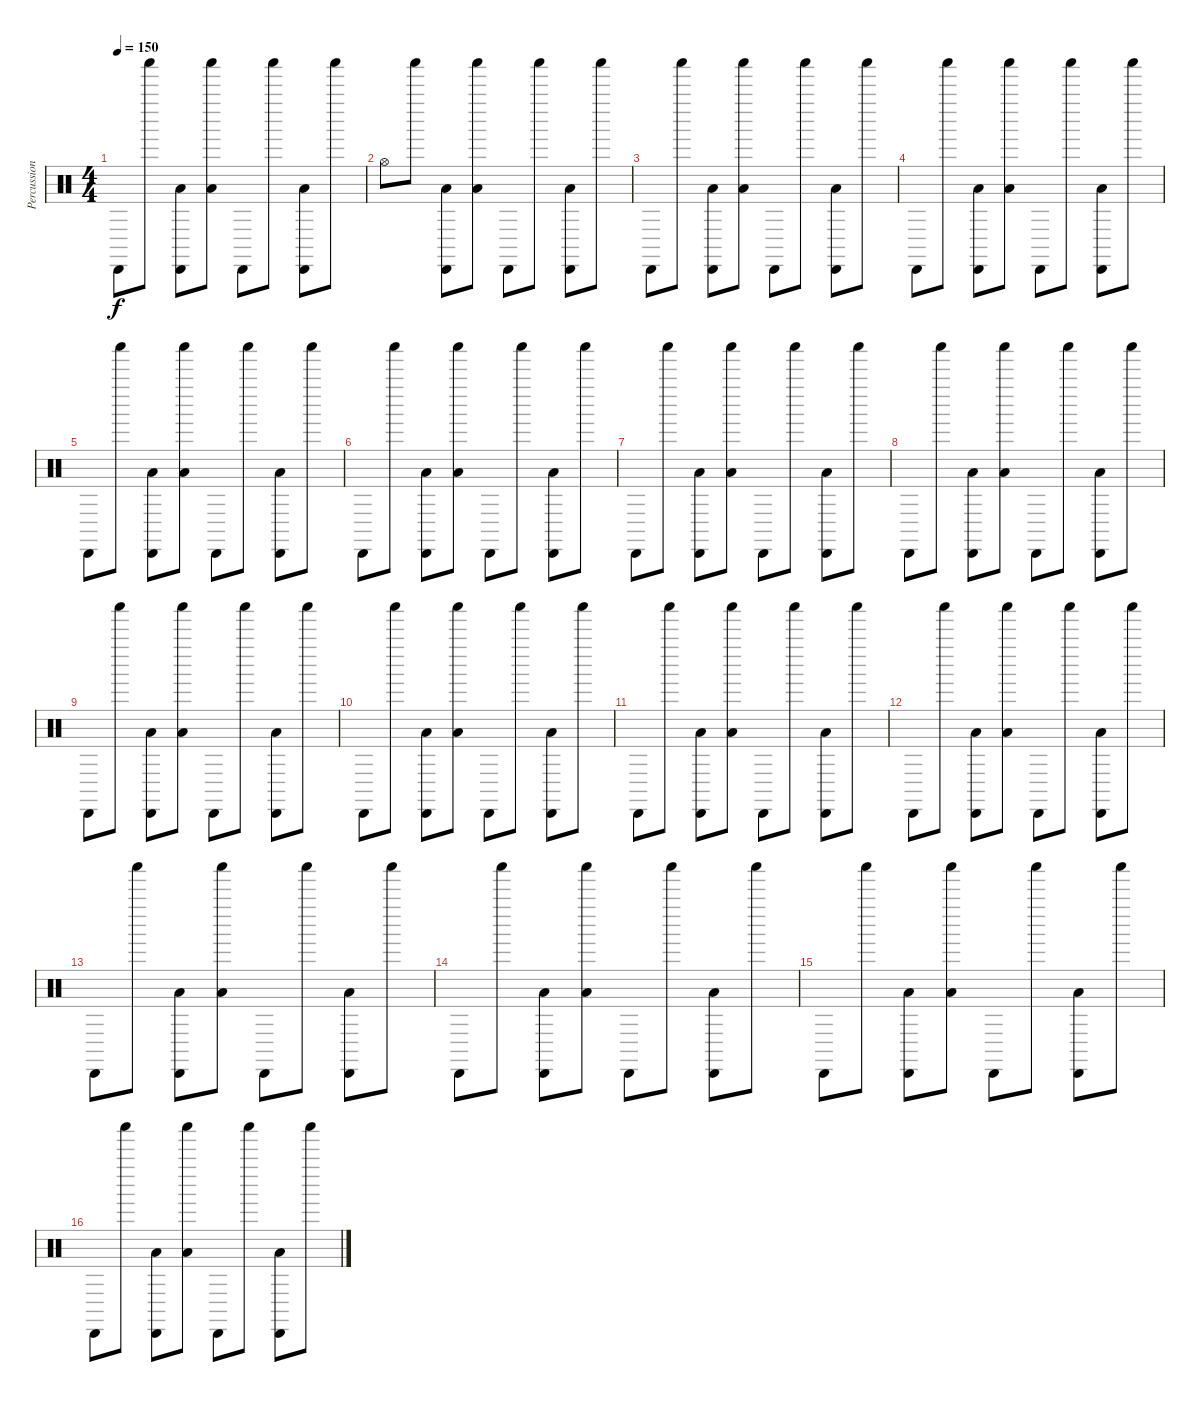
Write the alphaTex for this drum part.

\track ("Percussion" "Percussion") {instrument percussion}
\staff
\articulation defaults
\ts (4 4)
\tempo 150
\clef neutral
\ks c "Cabasa (hit)".8{dy f} "Shaker (hit)".8
("Cabasa (hit)" "Low Floor Tom (hit)").8 ("Shaker (hit)" "Low Floor Tom (hit)").8 "Cabasa (hit)".8 "Shaker (hit)".8 ("Cabasa (hit)" "Low Floor Tom (hit)").8 "Shaker (hit)".8 |
"Hi-Hat (open)".8 "Shaker (hit)".8 ("Cabasa (hit)" "Low Floor Tom (hit)").8 ("Shaker (hit)" "Low Floor Tom (hit)").8 "Cabasa (hit)".8 "Shaker (hit)".8 ("Cabasa (hit)" "Low Floor Tom (hit)").8 "Shaker (hit)".8 |
"Cabasa (hit)".8 "Shaker (hit)".8 ("Cabasa (hit)" "Low Floor Tom (hit)").8 ("Shaker (hit)" "Low Floor Tom (hit)").8 "Cabasa (hit)".8 "Shaker (hit)".8 ("Cabasa (hit)" "Low Floor Tom (hit)").8 "Shaker (hit)".8 |
"Cabasa (hit)".8 "Shaker (hit)".8 ("Cabasa (hit)" "Low Floor Tom (hit)").8 ("Shaker (hit)" "Low Floor Tom (hit)").8 "Cabasa (hit)".8 "Shaker (hit)".8 ("Cabasa (hit)" "Low Floor Tom (hit)").8 "Shaker (hit)".8 |
"Cabasa (hit)".8 "Shaker (hit)".8 ("Cabasa (hit)" "Low Floor Tom (hit)").8 ("Shaker (hit)" "Low Floor Tom (hit)").8 "Cabasa (hit)".8 "Shaker (hit)".8 ("Cabasa (hit)" "Low Floor Tom (hit)").8 "Shaker (hit)".8 |
"Cabasa (hit)".8 "Shaker (hit)".8 ("Cabasa (hit)" "Low Floor Tom (hit)").8 ("Shaker (hit)" "Low Floor Tom (hit)").8 "Cabasa (hit)".8 "Shaker (hit)".8 ("Cabasa (hit)" "Low Floor Tom (hit)").8 "Shaker (hit)".8 |
"Cabasa (hit)".8 "Shaker (hit)".8 ("Cabasa (hit)" "Low Floor Tom (hit)").8 ("Shaker (hit)" "Low Floor Tom (hit)").8 "Cabasa (hit)".8 "Shaker (hit)".8 ("Cabasa (hit)" "Low Floor Tom (hit)").8 "Shaker (hit)".8 |
"Cabasa (hit)".8 "Shaker (hit)".8 ("Cabasa (hit)" "Low Floor Tom (hit)").8 ("Shaker (hit)" "Low Floor Tom (hit)").8 "Cabasa (hit)".8 "Shaker (hit)".8 ("Cabasa (hit)" "Low Floor Tom (hit)").8 "Shaker (hit)".8 |
"Cabasa (hit)".8 "Shaker (hit)".8 ("Cabasa (hit)" "Low Floor Tom (hit)").8 ("Shaker (hit)" "Low Floor Tom (hit)").8 "Cabasa (hit)".8 "Shaker (hit)".8 ("Cabasa (hit)" "Low Floor Tom (hit)").8 "Shaker (hit)".8 |
"Cabasa (hit)".8 "Shaker (hit)".8 ("Cabasa (hit)" "Low Floor Tom (hit)").8 ("Shaker (hit)" "Low Floor Tom (hit)").8 "Cabasa (hit)".8 "Shaker (hit)".8 ("Cabasa (hit)" "Low Floor Tom (hit)").8 "Shaker (hit)".8 |
"Cabasa (hit)".8 "Shaker (hit)".8 ("Cabasa (hit)" "Low Floor Tom (hit)").8 ("Shaker (hit)" "Low Floor Tom (hit)").8 "Cabasa (hit)".8 "Shaker (hit)".8 ("Cabasa (hit)" "Low Floor Tom (hit)").8 "Shaker (hit)".8 |
"Cabasa (hit)".8 "Shaker (hit)".8 ("Cabasa (hit)" "Low Floor Tom (hit)").8 ("Shaker (hit)" "Low Floor Tom (hit)").8 "Cabasa (hit)".8 "Shaker (hit)".8 ("Cabasa (hit)" "Low Floor Tom (hit)").8 "Shaker (hit)".8 |
"Cabasa (hit)".8 "Shaker (hit)".8 ("Cabasa (hit)" "Low Floor Tom (hit)").8 ("Shaker (hit)" "Low Floor Tom (hit)").8 "Cabasa (hit)".8 "Shaker (hit)".8 ("Cabasa (hit)" "Low Floor Tom (hit)").8 "Shaker (hit)".8 |
"Cabasa (hit)".8 "Shaker (hit)".8 ("Cabasa (hit)" "Low Floor Tom (hit)").8 ("Shaker (hit)" "Low Floor Tom (hit)").8 "Cabasa (hit)".8 "Shaker (hit)".8 ("Cabasa (hit)" "Low Floor Tom (hit)").8 "Shaker (hit)".8 |
"Cabasa (hit)".8 "Shaker (hit)".8 ("Cabasa (hit)" "Low Floor Tom (hit)").8 ("Shaker (hit)" "Low Floor Tom (hit)").8 "Cabasa (hit)".8 "Shaker (hit)".8 ("Cabasa (hit)" "Low Floor Tom (hit)").8 "Shaker (hit)".8 |
"Cabasa (hit)".8 "Shaker (hit)".8 ("Cabasa (hit)" "Low Floor Tom (hit)").8 ("Shaker (hit)" "Low Floor Tom (hit)").8 "Cabasa (hit)".8 "Shaker (hit)".8 ("Cabasa (hit)" "Low Floor Tom (hit)").8 "Shaker (hit)".8
